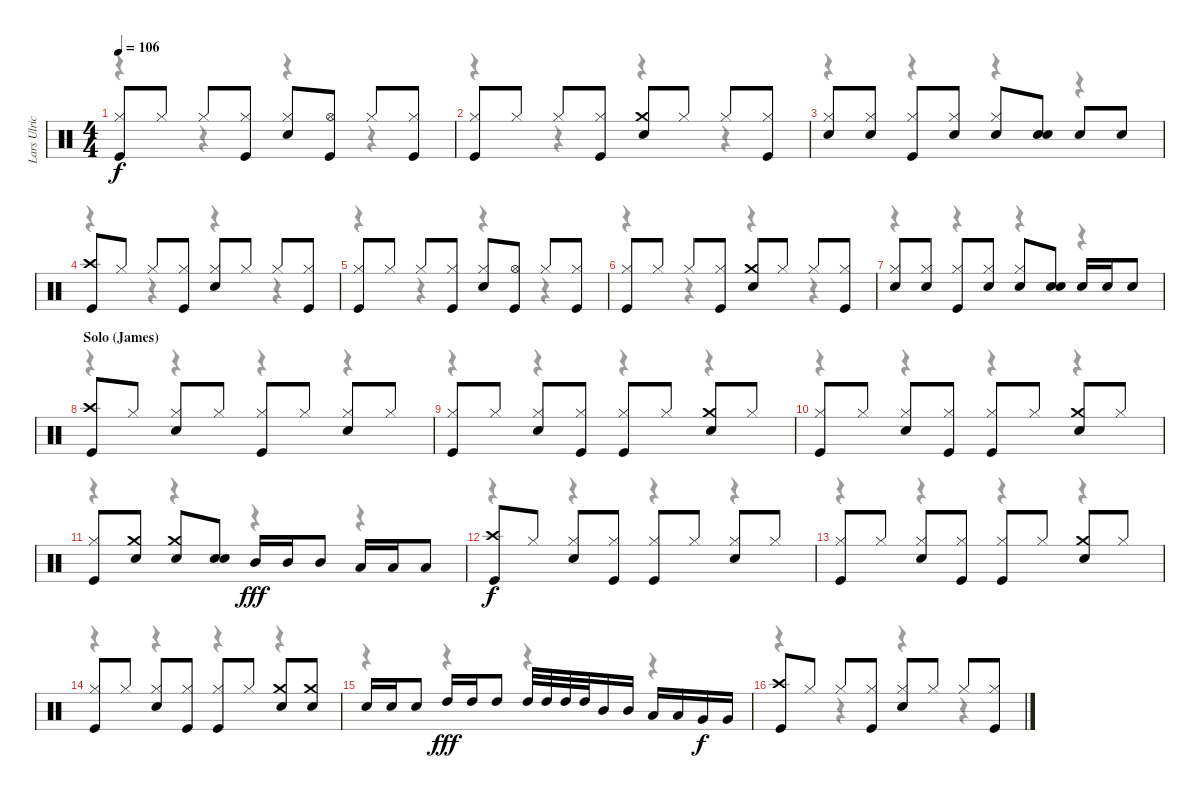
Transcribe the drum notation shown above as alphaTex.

\track ("Lars Ulrich" "Lars Ulric") {instrument percussion}
\staff {score}
\articulation defaults
\voice
\ts (4 4)
\tempo 106
\clef neutral
\ks c
("Hi-Hat (closed)" "Kick (hit)").8{dy f} "Hi-Hat (closed)".8 "Hi-Hat (closed)".8 ("Hi-Hat (closed)" "Kick (hit)").8 ("Hi-Hat (closed)" "Snare (hit) 2").8 ("Hi-Hat (open)" "Kick (hit)").8 "Hi-Hat (closed)".8 ("Hi-Hat (closed)" "Kick (hit)").8 |
("Hi-Hat (closed)" "Kick (hit)").8 "Hi-Hat (closed)".8 "Hi-Hat (closed)".8 ("Hi-Hat (closed)" "Kick (hit)").8 ("Crash medium (hit)" "Snare (hit) 2").8 "Hi-Hat (closed)".8 "Hi-Hat (closed)".8 ("Hi-Hat (closed)" "Kick (hit)").8 |
("Hi-Hat (closed)" "Snare (hit) 2").8 ("Hi-Hat (closed)" "Snare (hit) 2").8 ("Hi-Hat (closed)" "Kick (hit)").8 ("Hi-Hat (closed)" "Snare (hit) 2").8 ("Hi-Hat (closed)" "Snare (hit) 2").8 ("Snare (hit) 2" "Snare (hit) 2").8 "Snare (hit) 2".8 "Snare (hit) 2".8 |
("Crash high (hit)" "Kick (hit)").8 "Hi-Hat (closed)".8 "Hi-Hat (closed)".8 ("Hi-Hat (closed)" "Kick (hit)").8 ("Hi-Hat (closed)" "Snare (hit) 2").8 "Hi-Hat (closed)".8 "Hi-Hat (closed)".8 ("Hi-Hat (closed)" "Kick (hit)").8 |
("Hi-Hat (closed)" "Kick (hit)").8 "Hi-Hat (closed)".8 "Hi-Hat (closed)".8 ("Hi-Hat (closed)" "Kick (hit)").8 ("Hi-Hat (closed)" "Snare (hit) 2").8 ("Hi-Hat (open)" "Kick (hit)").8 "Hi-Hat (closed)".8 ("Hi-Hat (closed)" "Kick (hit)").8 |
("Hi-Hat (closed)" "Kick (hit)").8 "Hi-Hat (closed)".8 "Hi-Hat (closed)".8 ("Hi-Hat (closed)" "Kick (hit)").8 ("Crash medium (hit)" "Snare (hit) 2").8 "Hi-Hat (closed)".8 "Hi-Hat (closed)".8 ("Hi-Hat (closed)" "Kick (hit)").8 |
("Hi-Hat (closed)" "Snare (hit) 2").8 ("Hi-Hat (closed)" "Snare (hit) 2").8 ("Hi-Hat (closed)" "Kick (hit)").8 ("Hi-Hat (closed)" "Snare (hit) 2").8 ("Hi-Hat (closed)" "Snare (hit) 2").8 ("Snare (hit) 2" "Snare (hit) 2").8 "Snare (hit) 2".16 "Snare (hit) 2".16 "Snare (hit) 2".8 |
\section ("" "Solo (James)")
("Crash high (hit)" "Kick (hit)").8 "Hi-Hat (closed)".8 ("Hi-Hat (closed)" "Snare (hit) 2").8 "Hi-Hat (closed)".8 ("Hi-Hat (closed)" "Kick (hit)").8 "Hi-Hat (closed)".8 ("Hi-Hat (closed)" "Snare (hit) 2").8 "Hi-Hat (closed)".8 |
("Hi-Hat (closed)" "Kick (hit)").8 "Hi-Hat (closed)".8 ("Hi-Hat (closed)" "Snare (hit) 2").8 ("Hi-Hat (closed)" "Kick (hit)").8 ("Hi-Hat (closed)" "Kick (hit)").8 "Hi-Hat (closed)".8 ("Crash medium (hit)" "Snare (hit) 2").8 "Hi-Hat (closed)".8 |
("Hi-Hat (closed)" "Kick (hit)").8 "Hi-Hat (closed)".8 ("Hi-Hat (closed)" "Snare (hit) 2").8 ("Hi-Hat (closed)" "Kick (hit)").8 ("Hi-Hat (closed)" "Kick (hit)").8 "Hi-Hat (closed)".8 ("Crash medium (hit)" "Snare (hit) 2").8 "Hi-Hat (closed)".8 |
("Hi-Hat (closed)" "Kick (hit)").8 ("Crash medium (hit)" "Snare (hit) 2").8 ("Crash medium (hit)" "Snare (hit) 2").8 ("Snare (hit) 2" "Snare (hit) 2").8 "Mid Tom (hit)".16{dy fff} "Mid Tom (hit)".16 "Mid Tom (hit)".8 "Low Tom (hit)".16 "Low Tom (hit)".16 "Low Tom (hit)".8 |
("Crash high (hit)" "Kick (hit)").8{dy f} "Hi-Hat (closed)".8 ("Hi-Hat (closed)" "Snare (hit) 2").8 ("Hi-Hat (closed)" "Kick (hit)").8 ("Hi-Hat (closed)" "Kick (hit)").8 "Hi-Hat (closed)".8 ("Hi-Hat (closed)" "Snare (hit) 2").8 "Hi-Hat (closed)".8 |
("Hi-Hat (closed)" "Kick (hit)").8 "Hi-Hat (closed)".8 ("Hi-Hat (closed)" "Snare (hit) 2").8 ("Hi-Hat (closed)" "Kick (hit)").8 ("Hi-Hat (closed)" "Kick (hit)").8 "Hi-Hat (closed)".8 ("Crash medium (hit)" "Snare (hit) 2").8 "Hi-Hat (closed)".8 |
("Hi-Hat (closed)" "Kick (hit)").8 "Hi-Hat (closed)".8 ("Hi-Hat (closed)" "Snare (hit) 2").8 ("Hi-Hat (closed)" "Kick (hit)").8 ("Hi-Hat (closed)" "Kick (hit)").8 "Hi-Hat (closed)".8 ("Crash medium (hit)" "Snare (hit) 2").8 ("Crash medium (hit)" "Snare (hit) 2").8 |
"Snare (hit) 2".16 "Snare (hit) 2".16 "Snare (hit) 2".8 "High Tom (hit)".16{dy fff} "High Tom (hit)".16 "High Tom (hit)".8 "High Tom (hit)".32 "High Tom (hit)".32 "High Tom (hit)".32 "High Tom (hit)".32 "Mid Tom (hit)".16 "Mid Tom (hit)".16 "Low Tom (hit)".16 "Low Tom (hit)".16 "Very Low Tom (hit)".16{dy f} "Very Low Tom (hit)".16 |
("Crash high (hit)" "Kick (hit)").8 "Hi-Hat (closed)".8 "Hi-Hat (closed)".8 ("Hi-Hat (closed)" "Kick (hit)").8 ("Hi-Hat (closed)" "Snare (hit) 2").8 "Hi-Hat (closed)".8 "Hi-Hat (closed)".8 ("Hi-Hat (closed)" "Kick (hit)").8
\voice
\clef neutral
\ottava regular
\simile none
\ks c
r.4{dy f} r.4 r.4 r.4 |
r.4 r.4 r.4 r.4 |
r.4 r.4 r.4 r.4 |
r.4 r.4 r.4 r.4 |
r.4 r.4 r.4 r.4 |
r.4 r.4 r.4 r.4 |
r.4 r.4 r.4 r.4 |
r.4 r.4 r.4 r.4 |
r.4 r.4 r.4 r.4 |
r.4 r.4 r.4 r.4 |
r.4 r.4 r.4 r.4 |
r.4 r.4 r.4 r.4 |
r.4 r.4 r.4 r.4 |
r.4 r.4 r.4 r.4 |
r.4 r.4 r.4 r.4 |
r.4 r.4 r.4 r.4
